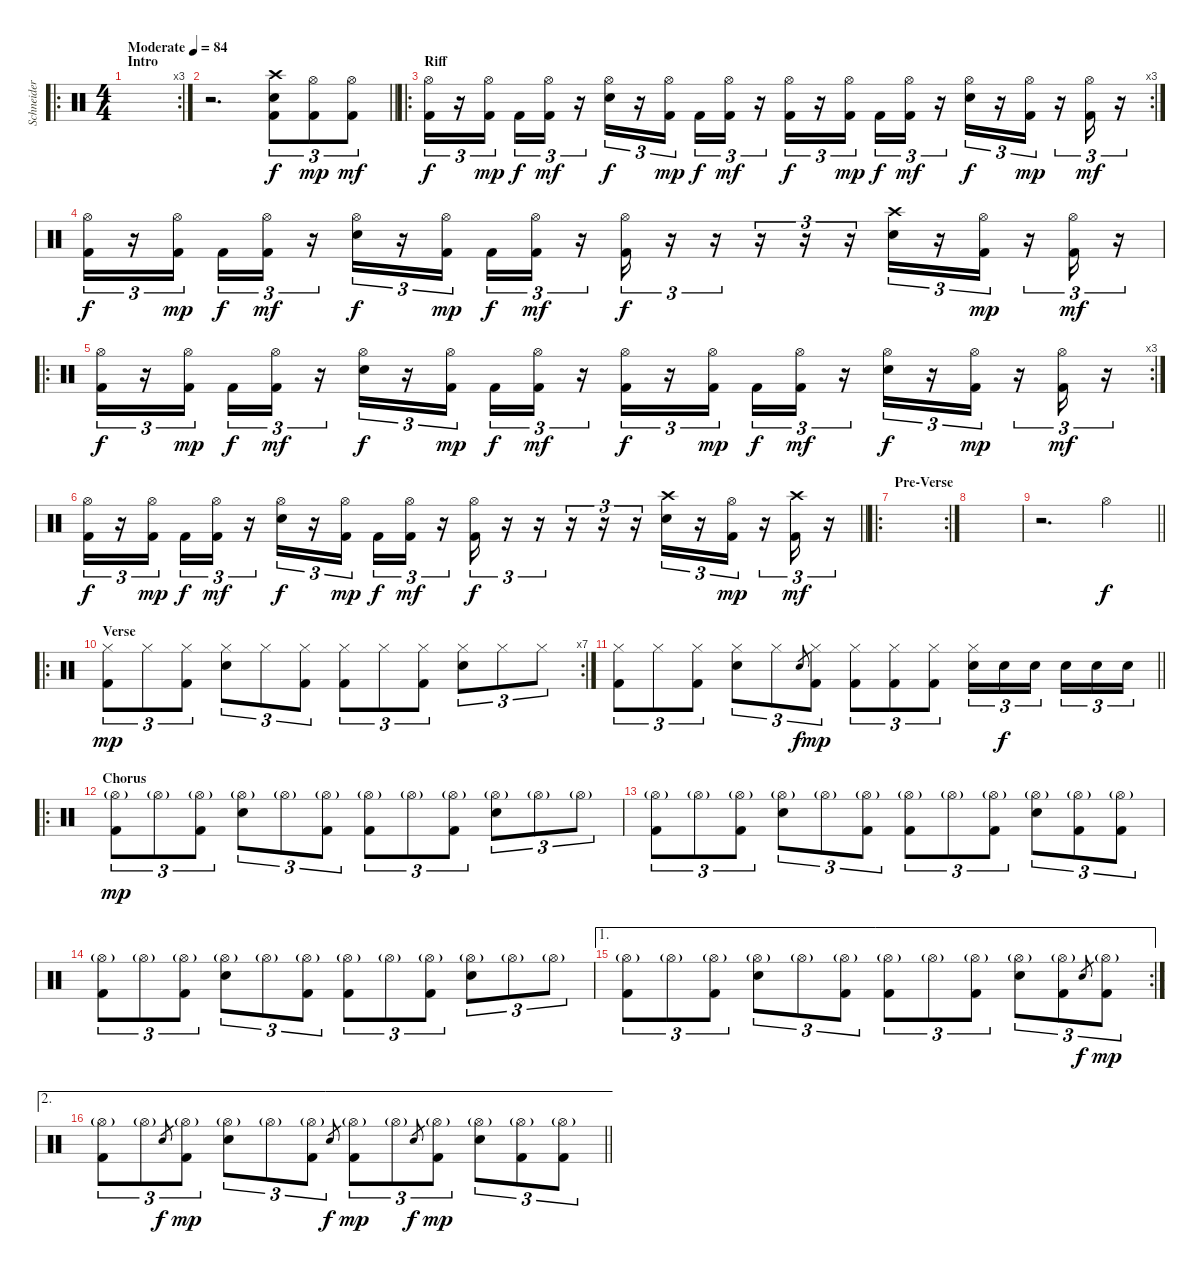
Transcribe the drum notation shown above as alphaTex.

\track ("Schneider" "Schneider") {instrument percussion}
\staff {score}
\articulation defaults
\ro
\rc 3
\ts (4 4)
\section ("" "Intro")
\tempo (84 "Moderate")
\clef neutral
\ks c
|
\barLineRight lightlight
r.2{d} ("Crash high (hit)" "Kick (hit) 2" "Electric Snare (hit)").8{tu (3 2)} ("Hi-Hat (open)" "Kick (hit) 2").8{tu (3 2) dy mp} ("Hi-Hat (open)" "Kick (hit) 2").8{tu (3 2) dy mf} |
\ro
\rc 3
\section ("" "Riff")
("Hi-Hat (open)" "Kick (hit) 2").16{tu (3 2) dy f} r.16{tu (3 2)} ("Hi-Hat (open)" "Kick (hit) 2").16{tu (3 2) dy mp beam splitsecondary} "Kick (hit) 2".16{tu (3 2) dy f} ("Hi-Hat (open)" "Kick (hit) 2").16{tu (3 2) dy mf} r.16{tu (3 2)} ("Hi-Hat (open)" "Electric Snare (hit)").16{tu (3 2) dy f} r.16{tu (3 2)} ("Hi-Hat (open)" "Kick (hit) 2").16{tu (3 2) dy mp beam splitsecondary} "Kick (hit) 2".16{tu (3 2) dy f} ("Hi-Hat (open)" "Kick (hit) 2").16{tu (3 2) dy mf} r.16{tu (3 2)} ("Hi-Hat (open)" "Kick (hit) 2").16{tu (3 2) dy f} r.16{tu (3 2)} ("Hi-Hat (open)" "Kick (hit) 2").16{tu (3 2) dy mp beam splitsecondary} "Kick (hit) 2".16{tu (3 2) dy f} ("Hi-Hat (open)" "Kick (hit) 2").16{tu (3 2) dy mf} r.16{tu (3 2)} ("Hi-Hat (open)" "Electric Snare (hit)").16{tu (3 2) dy f} r.16{tu (3 2)} ("Hi-Hat (open)" "Kick (hit) 2").16{tu (3 2) dy mp} r.16{tu (3 2)} ("Hi-Hat (open)" "Kick (hit) 2").16{tu (3 2) dy mf} r.16{tu (3 2)} |
("Hi-Hat (open)" "Kick (hit) 2").16{tu (3 2) dy f} r.16{tu (3 2)} ("Hi-Hat (open)" "Kick (hit) 2").16{tu (3 2) dy mp beam splitsecondary} "Kick (hit) 2".16{tu (3 2) dy f} ("Hi-Hat (open)" "Kick (hit) 2").16{tu (3 2) dy mf} r.16{tu (3 2)} ("Hi-Hat (open)" "Electric Snare (hit)").16{tu (3 2) dy f} r.16{tu (3 2)} ("Hi-Hat (open)" "Kick (hit) 2").16{tu (3 2) dy mp beam splitsecondary} "Kick (hit) 2".16{tu (3 2) dy f} ("Hi-Hat (open)" "Kick (hit) 2").16{tu (3 2) dy mf} r.16{tu (3 2)} ("Hi-Hat (open)" "Kick (hit) 2").16{tu (3 2) dy f} r.16{tu (3 2)} r.16{tu (3 2)} r.16{tu (3 2)} r.16{tu (3 2)} r.16{tu (3 2)} ("Crash high (hit)" "Electric Snare (hit)").16{tu (3 2)} r.16{tu (3 2)} ("Hi-Hat (open)" "Kick (hit) 2").16{tu (3 2) dy mp} r.16{tu (3 2)} ("Hi-Hat (open)" "Kick (hit) 2").16{tu (3 2) dy mf} r.16{tu (3 2)} |
\ro
\rc 3
("Hi-Hat (open)" "Kick (hit) 2").16{tu (3 2) dy f} r.16{tu (3 2)} ("Hi-Hat (open)" "Kick (hit) 2").16{tu (3 2) dy mp beam splitsecondary} "Kick (hit) 2".16{tu (3 2) dy f} ("Hi-Hat (open)" "Kick (hit) 2").16{tu (3 2) dy mf} r.16{tu (3 2)} ("Hi-Hat (open)" "Electric Snare (hit)").16{tu (3 2) dy f} r.16{tu (3 2)} ("Hi-Hat (open)" "Kick (hit) 2").16{tu (3 2) dy mp beam splitsecondary} "Kick (hit) 2".16{tu (3 2) dy f} ("Hi-Hat (open)" "Kick (hit) 2").16{tu (3 2) dy mf} r.16{tu (3 2)} ("Hi-Hat (open)" "Kick (hit) 2").16{tu (3 2) dy f} r.16{tu (3 2)} ("Hi-Hat (open)" "Kick (hit) 2").16{tu (3 2) dy mp beam splitsecondary} "Kick (hit) 2".16{tu (3 2) dy f} ("Hi-Hat (open)" "Kick (hit) 2").16{tu (3 2) dy mf} r.16{tu (3 2)} ("Hi-Hat (open)" "Electric Snare (hit)").16{tu (3 2) dy f} r.16{tu (3 2)} ("Hi-Hat (open)" "Kick (hit) 2").16{tu (3 2) dy mp} r.16{tu (3 2)} ("Hi-Hat (open)" "Kick (hit) 2").16{tu (3 2) dy mf} r.16{tu (3 2)} |
\barLineRight lightlight
("Hi-Hat (open)" "Kick (hit) 2").16{tu (3 2) dy f} r.16{tu (3 2)} ("Hi-Hat (open)" "Kick (hit) 2").16{tu (3 2) dy mp beam splitsecondary} "Kick (hit) 2".16{tu (3 2) dy f} ("Hi-Hat (open)" "Kick (hit) 2").16{tu (3 2) dy mf} r.16{tu (3 2)} ("Hi-Hat (open)" "Electric Snare (hit)").16{tu (3 2) dy f} r.16{tu (3 2)} ("Hi-Hat (open)" "Kick (hit) 2").16{tu (3 2) dy mp beam splitsecondary} "Kick (hit) 2".16{tu (3 2) dy f} ("Hi-Hat (open)" "Kick (hit) 2").16{tu (3 2) dy mf} r.16{tu (3 2)} ("Hi-Hat (open)" "Kick (hit) 2").16{tu (3 2) dy f} r.16{tu (3 2)} r.16{tu (3 2)} r.16{tu (3 2)} r.16{tu (3 2)} r.16{tu (3 2)} ("Crash high (hit)" "Electric Snare (hit)").16{tu (3 2)} r.16{tu (3 2)} ("Hi-Hat (open)" "Kick (hit) 2").16{tu (3 2) dy mp} r.16{tu (3 2)} ("Crash high (hit)" "Kick (hit) 2").16{tu (3 2) dy mf} r.16{tu (3 2)} |
\ro
\rc 2
\section ("" "Pre-Verse")
|
|
\barLineRight lightlight
r.2{d} "Hi-Hat (open)".4{dy f} |
\ro
\rc 7
\section ("" "Verse")
("Hi-Hat (closed)" "Kick (hit) 2").8{tu (3 2) dy mp} "Hi-Hat (closed)".8{tu (3 2)} ("Hi-Hat (closed)" "Kick (hit) 2").8{tu (3 2)} ("Hi-Hat (closed)" "Electric Snare (hit)").8{tu (3 2)} "Hi-Hat (closed)".8{tu (3 2)} ("Hi-Hat (closed)" "Kick (hit) 2").8{tu (3 2)} ("Hi-Hat (closed)" "Kick (hit) 2").8{tu (3 2)} "Hi-Hat (closed)".8{tu (3 2)} ("Hi-Hat (closed)" "Kick (hit) 2").8{tu (3 2)} ("Hi-Hat (closed)" "Electric Snare (hit)").8{tu (3 2)} "Hi-Hat (closed)".8{tu (3 2)} "Hi-Hat (closed)".8{tu (3 2)} |
\barLineRight lightlight
("Hi-Hat (closed)" "Kick (hit) 2").8{tu (3 2)} "Hi-Hat (closed)".8{tu (3 2)} ("Hi-Hat (closed)" "Kick (hit) 2").8{tu (3 2)} ("Hi-Hat (closed)" "Electric Snare (hit)").8{tu (3 2)} "Hi-Hat (closed)".8{tu (3 2)} "Electric Snare (hit)".8{gr dy f} ("Hi-Hat (closed)" "Kick (hit) 2").8{tu (3 2) dy mp} ("Hi-Hat (closed)" "Kick (hit) 2").8{tu (3 2)} ("Hi-Hat (closed)" "Kick (hit) 2").8{tu (3 2)} ("Hi-Hat (closed)" "Kick (hit) 2").8{tu (3 2)} ("Hi-Hat (closed)" "Electric Snare (hit)").16{tu (3 2)} "Electric Snare (hit)".16{tu (3 2) dy f} "Electric Snare (hit)".16{tu (3 2) beam splitsecondary} "Electric Snare (hit)".16{tu (3 2)} "Electric Snare (hit)".16{tu (3 2)} "Electric Snare (hit)".16{tu (3 2)} |
\ro
\section ("" "Chorus")
("Hi-Hat (open)"{g} "Kick (hit) 2").8{tu (3 2) dy mp} "Hi-Hat (open)"{g}.8{tu (3 2)} ("Hi-Hat (open)"{g} "Kick (hit) 2").8{tu (3 2)} ("Hi-Hat (open)"{g} "Electric Snare (hit)").8{tu (3 2)} "Hi-Hat (open)"{g}.8{tu (3 2)} ("Hi-Hat (open)"{g} "Kick (hit) 2").8{tu (3 2)} ("Hi-Hat (open)"{g} "Kick (hit) 2").8{tu (3 2)} "Hi-Hat (open)"{g}.8{tu (3 2)} ("Hi-Hat (open)"{g} "Kick (hit) 2").8{tu (3 2)} ("Hi-Hat (open)"{g} "Electric Snare (hit)").8{tu (3 2)} "Hi-Hat (open)"{g}.8{tu (3 2)} "Hi-Hat (open)"{g}.8{tu (3 2)} |
("Hi-Hat (open)"{g} "Kick (hit) 2").8{tu (3 2)} "Hi-Hat (open)"{g}.8{tu (3 2)} ("Hi-Hat (open)"{g} "Kick (hit) 2").8{tu (3 2)} ("Hi-Hat (open)"{g} "Electric Snare (hit)").8{tu (3 2)} "Hi-Hat (open)"{g}.8{tu (3 2)} ("Hi-Hat (open)"{g} "Kick (hit) 2").8{tu (3 2)} ("Hi-Hat (open)"{g} "Kick (hit) 2").8{tu (3 2)} "Hi-Hat (open)"{g}.8{tu (3 2)} ("Hi-Hat (open)"{g} "Kick (hit) 2").8{tu (3 2)} ("Hi-Hat (open)"{g} "Electric Snare (hit)").8{tu (3 2)} ("Hi-Hat (open)"{g} "Kick (hit) 2").8{tu (3 2)} ("Hi-Hat (open)"{g} "Kick (hit) 2").8{tu (3 2)} |
("Hi-Hat (open)"{g} "Kick (hit) 2").8{tu (3 2)} "Hi-Hat (open)"{g}.8{tu (3 2)} ("Hi-Hat (open)"{g} "Kick (hit) 2").8{tu (3 2)} ("Hi-Hat (open)"{g} "Electric Snare (hit)").8{tu (3 2)} "Hi-Hat (open)"{g}.8{tu (3 2)} ("Hi-Hat (open)"{g} "Kick (hit) 2").8{tu (3 2)} ("Hi-Hat (open)"{g} "Kick (hit) 2").8{tu (3 2)} "Hi-Hat (open)"{g}.8{tu (3 2)} ("Hi-Hat (open)"{g} "Kick (hit) 2").8{tu (3 2)} ("Hi-Hat (open)"{g} "Electric Snare (hit)").8{tu (3 2)} "Hi-Hat (open)"{g}.8{tu (3 2)} "Hi-Hat (open)"{g}.8{tu (3 2)} |
\ae 1
\rc 2
("Hi-Hat (open)"{g} "Kick (hit) 2").8{tu (3 2)} "Hi-Hat (open)"{g}.8{tu (3 2)} ("Hi-Hat (open)"{g} "Kick (hit) 2").8{tu (3 2)} ("Hi-Hat (open)"{g} "Electric Snare (hit)").8{tu (3 2)} "Hi-Hat (open)"{g}.8{tu (3 2)} ("Hi-Hat (open)"{g} "Kick (hit) 2").8{tu (3 2)} ("Hi-Hat (open)"{g} "Kick (hit) 2").8{tu (3 2)} "Hi-Hat (open)"{g}.8{tu (3 2)} ("Hi-Hat (open)"{g} "Kick (hit) 2").8{tu (3 2)} ("Hi-Hat (open)"{g} "Electric Snare (hit)").8{tu (3 2)} ("Hi-Hat (open)"{g} "Kick (hit) 2").8{tu (3 2)} "Electric Snare (hit)".8{gr dy f} ("Hi-Hat (open)"{g} "Kick (hit) 2").8{tu (3 2) dy mp} |
\ae 2
\barLineRight lightlight
("Hi-Hat (open)"{g} "Kick (hit) 2").8{tu (3 2)} "Hi-Hat (open)"{g}.8{tu (3 2)} "Electric Snare (hit)".8{gr dy f} ("Hi-Hat (open)"{g} "Kick (hit) 2").8{tu (3 2) dy mp} ("Hi-Hat (open)"{g} "Electric Snare (hit)").8{tu (3 2)} "Hi-Hat (open)"{g}.8{tu (3 2)} ("Hi-Hat (open)"{g} "Kick (hit) 2").8{tu (3 2)} "Electric Snare (hit)".8{gr dy f} ("Hi-Hat (open)"{g} "Kick (hit) 2").8{tu (3 2) dy mp} "Hi-Hat (open)"{g}.8{tu (3 2)} "Electric Snare (hit)".8{gr dy f} ("Hi-Hat (open)"{g} "Kick (hit) 2").8{tu (3 2) dy mp} ("Hi-Hat (open)"{g} "Electric Snare (hit)").8{tu (3 2)} ("Hi-Hat (open)"{g} "Kick (hit) 2").8{tu (3 2)} ("Hi-Hat (open)"{g} "Kick (hit) 2").8{tu (3 2)}
